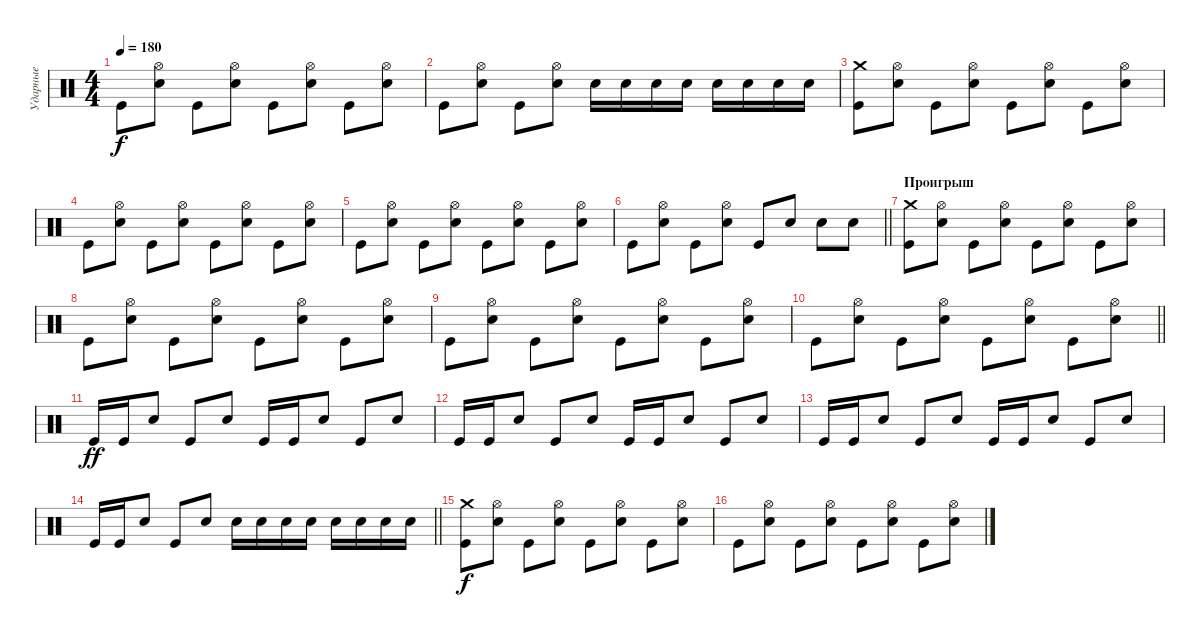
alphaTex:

\track ("Ударные" "Ударные") {instrument percussion}
\staff {score}
\articulation defaults
\ts (4 4)
\tempo 180
\clef neutral
\ks c "Kick (hit)".8{dy f}
("Hi-Hat (open)" "Electric Snare (hit)").8 "Kick (hit)".8 ("Hi-Hat (open)" "Electric Snare (hit)").8 "Kick (hit)".8 ("Hi-Hat (open)" "Electric Snare (hit)").8 "Kick (hit)".8 ("Hi-Hat (open)" "Electric Snare (hit)").8 |
"Kick (hit)".8 ("Hi-Hat (open)" "Electric Snare (hit)").8 "Kick (hit)".8 ("Hi-Hat (open)" "Electric Snare (hit)").8 "Electric Snare (hit)".16 "Electric Snare (hit)".16 "Electric Snare (hit)".16 "Electric Snare (hit)".16 "Electric Snare (hit)".16 "Electric Snare (hit)".16 "Electric Snare (hit)".16 "Electric Snare (hit)".16 |
("Crash medium (hit)" "Kick (hit)").8 ("Hi-Hat (open)" "Electric Snare (hit)").8 "Kick (hit)".8 ("Hi-Hat (open)" "Electric Snare (hit)").8 "Kick (hit)".8 ("Hi-Hat (open)" "Electric Snare (hit)").8 "Kick (hit)".8 ("Hi-Hat (open)" "Electric Snare (hit)").8 |
"Kick (hit)".8 ("Hi-Hat (open)" "Electric Snare (hit)").8 "Kick (hit)".8 ("Hi-Hat (open)" "Electric Snare (hit)").8 "Kick (hit)".8 ("Hi-Hat (open)" "Electric Snare (hit)").8 "Kick (hit)".8 ("Hi-Hat (open)" "Electric Snare (hit)").8 |
"Kick (hit)".8 ("Hi-Hat (open)" "Electric Snare (hit)").8 "Kick (hit)".8 ("Hi-Hat (open)" "Electric Snare (hit)").8 "Kick (hit)".8 ("Hi-Hat (open)" "Electric Snare (hit)").8 "Kick (hit)".8 ("Hi-Hat (open)" "Electric Snare (hit)").8 |
\barLineRight lightlight "Kick (hit)".8
("Hi-Hat (open)" "Electric Snare (hit)").8 "Kick (hit)".8 ("Hi-Hat (open)" "Electric Snare (hit)").8 "Kick (hit)".8 "Electric Snare (hit)".8 "Electric Snare (hit)".8 "Electric Snare (hit)".8 |
\section ("" "Проигрыш")
("Crash medium (hit)" "Kick (hit)").8 ("Hi-Hat (open)" "Electric Snare (hit)").8 "Kick (hit)".8 ("Hi-Hat (open)" "Electric Snare (hit)").8 "Kick (hit)".8 ("Hi-Hat (open)" "Electric Snare (hit)").8 "Kick (hit)".8 ("Hi-Hat (open)" "Electric Snare (hit)").8 |
"Kick (hit)".8 ("Hi-Hat (open)" "Electric Snare (hit)").8 "Kick (hit)".8 ("Hi-Hat (open)" "Electric Snare (hit)").8 "Kick (hit)".8 ("Hi-Hat (open)" "Electric Snare (hit)").8 "Kick (hit)".8 ("Hi-Hat (open)" "Electric Snare (hit)").8 |
"Kick (hit)".8 ("Hi-Hat (open)" "Electric Snare (hit)").8 "Kick (hit)".8 ("Hi-Hat (open)" "Electric Snare (hit)").8 "Kick (hit)".8 ("Hi-Hat (open)" "Electric Snare (hit)").8 "Kick (hit)".8 ("Hi-Hat (open)" "Electric Snare (hit)").8 |
\barLineRight lightlight "Kick (hit)".8
("Hi-Hat (open)" "Electric Snare (hit)").8 "Kick (hit)".8 ("Hi-Hat (open)" "Electric Snare (hit)").8 "Kick (hit)".8 ("Hi-Hat (open)" "Electric Snare (hit)").8 "Kick (hit)".8 ("Hi-Hat (open)" "Electric Snare (hit)").8 |
"Kick (hit)".16{dy ff} "Kick (hit)".16 "Electric Snare (hit)".8 "Kick (hit)".8 "Electric Snare (hit)".8 "Kick (hit)".16 "Kick (hit)".16 "Electric Snare (hit)".8 "Kick (hit)".8 "Electric Snare (hit)".8 |
"Kick (hit)".16 "Kick (hit)".16 "Electric Snare (hit)".8 "Kick (hit)".8 "Electric Snare (hit)".8 "Kick (hit)".16 "Kick (hit)".16 "Electric Snare (hit)".8 "Kick (hit)".8 "Electric Snare (hit)".8 |
"Kick (hit)".16 "Kick (hit)".16 "Electric Snare (hit)".8 "Kick (hit)".8 "Electric Snare (hit)".8 "Kick (hit)".16 "Kick (hit)".16 "Electric Snare (hit)".8 "Kick (hit)".8 "Electric Snare (hit)".8 |
\barLineRight lightlight "Kick (hit)".16 "Kick (hit)".16 "Electric Snare (hit)".8 "Kick (hit)".8 "Electric Snare (hit)".8 "Electric Snare (hit)".16 "Electric Snare (hit)".16 "Electric Snare (hit)".16 "Electric Snare (hit)".16 "Electric Snare (hit)".16 "Electric Snare (hit)".16 "Electric Snare (hit)".16 "Electric Snare (hit)".16
|
\section ("" " ")
("Crash medium (hit)" "Kick (hit)").8{dy f} ("Hi-Hat (open)" "Electric Snare (hit)").8 "Kick (hit)".8 ("Hi-Hat (open)" "Electric Snare (hit)").8 "Kick (hit)".8 ("Hi-Hat (open)" "Electric Snare (hit)").8 "Kick (hit)".8 ("Hi-Hat (open)" "Electric Snare (hit)").8 |
"Kick (hit)".8 ("Hi-Hat (open)" "Electric Snare (hit)").8 "Kick (hit)".8 ("Hi-Hat (open)" "Electric Snare (hit)").8 "Kick (hit)".8 ("Hi-Hat (open)" "Electric Snare (hit)").8 "Kick (hit)".8 ("Hi-Hat (open)" "Electric Snare (hit)").8
